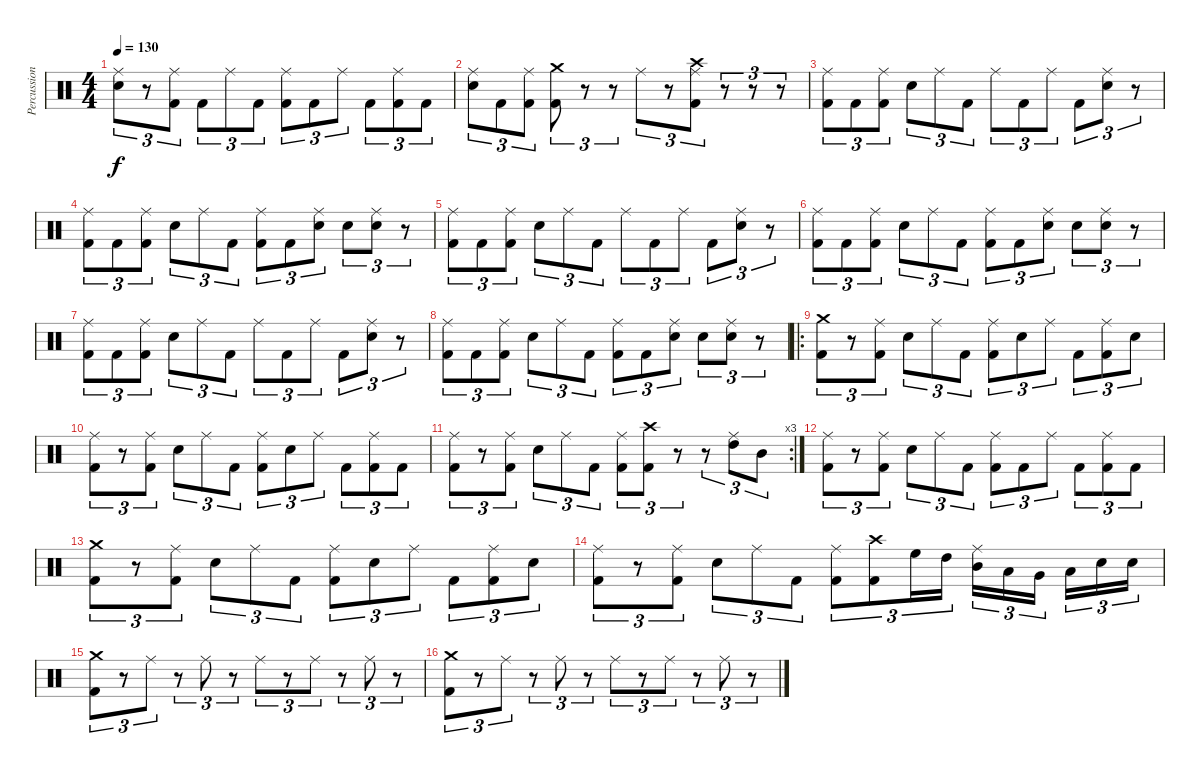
\track ("Percussion" "Percussion") {instrument percussion}
\staff {score}
\articulation defaults
\ts (4 4)
\tempo 130
\clef neutral
\ks c
("Ride (middle)" "Electric Snare (hit)").8{tu (3 2) dy f} r.8{tu (3 2)} ("Ride (middle)" "Kick (hit) 2").8{tu (3 2)} "Kick (hit) 2".8{tu (3 2)} "Ride (middle)".8{tu (3 2)} "Kick (hit) 2".8{tu (3 2)} ("Ride (middle)" "Kick (hit) 2").8{tu (3 2)} "Kick (hit) 2".8{tu (3 2)} "Ride (middle)".8{tu (3 2)} "Kick (hit) 2".8{tu (3 2)} ("Ride (middle)" "Kick (hit) 2").8{tu (3 2)} "Kick (hit) 2".8{tu (3 2)} |
("Ride (middle)" "Electric Snare (hit)").8{tu (3 2)} "Kick (hit) 2".8{tu (3 2)} ("Ride (middle)" "Kick (hit) 2").8{tu (3 2)} ("Crash medium (hit)" "Kick (hit) 2").8{tu (3 2)} r.8{tu (3 2)} r.8{tu (3 2)} "Ride (middle)".8{tu (3 2)} r.8{tu (3 2)} ("Ride (middle)" "Crash high (hit)" "Kick (hit) 2").8{tu (3 2)} r.8{tu (3 2)} r.8{tu (3 2)} r.8{tu (3 2)} |
("Ride (middle)" "Kick (hit) 2").8{tu (3 2)} "Kick (hit) 2".8{tu (3 2)} ("Ride (middle)" "Kick (hit) 2").8{tu (3 2)} "Electric Snare (hit)".8{tu (3 2)} "Ride (middle)".8{tu (3 2)} "Kick (hit) 2".8{tu (3 2)} "Ride (middle)".8{tu (3 2)} "Kick (hit) 2".8{tu (3 2)} "Ride (middle)".8{tu (3 2)} "Kick (hit) 2".8{tu (3 2)} ("Ride (middle)" "Electric Snare (hit)").8{tu (3 2)} r.8{tu (3 2)} |
("Ride (middle)" "Kick (hit) 2").8{tu (3 2)} "Kick (hit) 2".8{tu (3 2)} ("Ride (middle)" "Kick (hit) 2").8{tu (3 2)} "Electric Snare (hit)".8{tu (3 2)} "Ride (middle)".8{tu (3 2)} "Kick (hit) 2".8{tu (3 2)} ("Ride (middle)" "Kick (hit) 2").8{tu (3 2)} "Kick (hit) 2".8{tu (3 2)} ("Ride (middle)" "Electric Snare (hit)").8{tu (3 2)} "Electric Snare (hit)".8{tu (3 2)} ("Ride (middle)" "Electric Snare (hit)").8{tu (3 2)} r.8{tu (3 2)} |
("Ride (middle)" "Kick (hit) 2").8{tu (3 2)} "Kick (hit) 2".8{tu (3 2)} ("Ride (middle)" "Kick (hit) 2").8{tu (3 2)} "Electric Snare (hit)".8{tu (3 2)} "Ride (middle)".8{tu (3 2)} "Kick (hit) 2".8{tu (3 2)} "Ride (middle)".8{tu (3 2)} "Kick (hit) 2".8{tu (3 2)} "Ride (middle)".8{tu (3 2)} "Kick (hit) 2".8{tu (3 2)} ("Ride (middle)" "Electric Snare (hit)").8{tu (3 2)} r.8{tu (3 2)} |
("Ride (middle)" "Kick (hit) 2").8{tu (3 2)} "Kick (hit) 2".8{tu (3 2)} ("Ride (middle)" "Kick (hit) 2").8{tu (3 2)} "Electric Snare (hit)".8{tu (3 2)} "Ride (middle)".8{tu (3 2)} "Kick (hit) 2".8{tu (3 2)} ("Ride (middle)" "Kick (hit) 2").8{tu (3 2)} "Kick (hit) 2".8{tu (3 2)} ("Ride (middle)" "Electric Snare (hit)").8{tu (3 2)} "Electric Snare (hit)".8{tu (3 2)} ("Ride (middle)" "Electric Snare (hit)").8{tu (3 2)} r.8{tu (3 2)} |
("Ride (middle)" "Kick (hit) 2").8{tu (3 2)} "Kick (hit) 2".8{tu (3 2)} ("Ride (middle)" "Kick (hit) 2").8{tu (3 2)} "Electric Snare (hit)".8{tu (3 2)} "Ride (middle)".8{tu (3 2)} "Kick (hit) 2".8{tu (3 2)} "Ride (middle)".8{tu (3 2)} "Kick (hit) 2".8{tu (3 2)} "Ride (middle)".8{tu (3 2)} "Kick (hit) 2".8{tu (3 2)} ("Ride (middle)" "Electric Snare (hit)").8{tu (3 2)} r.8{tu (3 2)} |
("Ride (middle)" "Kick (hit) 2").8{tu (3 2)} "Kick (hit) 2".8{tu (3 2)} ("Ride (middle)" "Kick (hit) 2").8{tu (3 2)} "Electric Snare (hit)".8{tu (3 2)} "Ride (middle)".8{tu (3 2)} "Kick (hit) 2".8{tu (3 2)} ("Ride (middle)" "Kick (hit) 2").8{tu (3 2)} "Kick (hit) 2".8{tu (3 2)} ("Ride (middle)" "Electric Snare (hit)").8{tu (3 2)} "Electric Snare (hit)".8{tu (3 2)} ("Ride (middle)" "Electric Snare (hit)").8{tu (3 2)} r.8{tu (3 2)} |
\ro
("Crash medium (hit)" "Kick (hit) 2").8{tu (3 2)} r.8{tu (3 2)} ("Ride (middle)" "Kick (hit) 2").8{tu (3 2)} "Electric Snare (hit)".8{tu (3 2)} "Ride (middle)".8{tu (3 2)} "Kick (hit) 2".8{tu (3 2)} ("Ride (middle)" "Kick (hit) 2").8{tu (3 2)} "Electric Snare (hit)".8{tu (3 2)} "Ride (middle)".8{tu (3 2)} "Kick (hit) 2".8{tu (3 2)} ("Ride (middle)" "Kick (hit) 2").8{tu (3 2)} "Electric Snare (hit)".8{tu (3 2)} |
("Ride (middle)" "Kick (hit) 2").8{tu (3 2)} r.8{tu (3 2)} ("Ride (middle)" "Kick (hit) 2").8{tu (3 2)} "Electric Snare (hit)".8{tu (3 2)} "Ride (middle)".8{tu (3 2)} "Kick (hit) 2".8{tu (3 2)} ("Ride (middle)" "Kick (hit) 2").8{tu (3 2)} "Electric Snare (hit)".8{tu (3 2)} "Ride (middle)".8{tu (3 2)} "Kick (hit) 2".8{tu (3 2)} ("Ride (middle)" "Kick (hit) 2").8{tu (3 2)} "Kick (hit) 2".8{tu (3 2)} |
\rc 3
("Ride (middle)" "Kick (hit) 2").8{tu (3 2)} r.8{tu (3 2)} ("Ride (middle)" "Kick (hit) 2").8{tu (3 2)} "Electric Snare (hit)".8{tu (3 2)} "Ride (middle)".8{tu (3 2)} "Kick (hit) 2".8{tu (3 2)} ("Ride (middle)" "Kick (hit) 2").8{tu (3 2)} ("Crash high (hit)" "Kick (hit) 2").8{tu (3 2)} r.8{tu (3 2)} r.8{tu (3 2)} ("Ride (middle)" "High Tom (hit)").8{tu (3 2)} "Mid Tom (hit)".8{tu (3 2)} |
("Ride (middle)" "Kick (hit) 2").8{tu (3 2)} r.8{tu (3 2)} ("Ride (middle)" "Kick (hit) 2").8{tu (3 2)} "Electric Snare (hit)".8{tu (3 2)} "Ride (middle)".8{tu (3 2)} "Kick (hit) 2".8{tu (3 2)} ("Ride (middle)" "Kick (hit) 2").8{tu (3 2)} "Kick (hit) 2".8{tu (3 2)} "Ride (middle)".8{tu (3 2)} "Kick (hit) 2".8{tu (3 2)} ("Ride (middle)" "Kick (hit) 2").8{tu (3 2)} "Kick (hit) 2".8{tu (3 2)} |
("Crash medium (hit)" "Kick (hit) 2").8{tu (3 2)} r.8{tu (3 2)} ("Ride (middle)" "Kick (hit) 2").8{tu (3 2)} "Electric Snare (hit)".8{tu (3 2)} "Ride (middle)".8{tu (3 2)} "Kick (hit) 2".8{tu (3 2)} ("Ride (middle)" "Kick (hit) 2").8{tu (3 2)} "Electric Snare (hit)".8{tu (3 2)} "Ride (middle)".8{tu (3 2)} "Kick (hit) 2".8{tu (3 2)} ("Ride (middle)" "Kick (hit) 2").8{tu (3 2)} "Electric Snare (hit)".8{tu (3 2)} |
("Ride (middle)" "Kick (hit) 2").8{tu (3 2)} r.8{tu (3 2)} ("Ride (middle)" "Kick (hit) 2").8{tu (3 2)} "Electric Snare (hit)".8{tu (3 2)} "Ride (middle)".8{tu (3 2)} "Kick (hit) 2".8{tu (3 2)} ("Ride (middle)" "Kick (hit) 2").8{tu (3 2)} ("Crash high (hit)" "Kick (hit) 2").8{tu (3 2)} "High Floor Tom (hit)".16{tu (3 2)} "High Tom (hit)".16{tu (3 2)} ("Ride (middle)" "Mid Tom (hit)").16{tu (3 2)} "Low Tom (hit)".16{tu (3 2)} "Very Low Tom (hit)".16{tu (3 2)} "Low Floor Tom (hit)".16{tu (3 2)} "Electric Snare (hit)".16{tu (3 2)} "Electric Snare (hit)".16{tu (3 2)} |
("Crash medium (hit)" "Kick (hit) 2").8{tu (3 2)} r.8{tu (3 2)} "Ride (middle)".8{tu (3 2)} r.8{tu (3 2)} "Ride (middle)".8{tu (3 2)} r.8{tu (3 2)} "Ride (middle)".8{tu (3 2)} r.8{tu (3 2)} "Ride (middle)".8{tu (3 2)} r.8{tu (3 2)} "Ride (middle)".8{tu (3 2)} r.8{tu (3 2)} |
("Crash medium (hit)" "Kick (hit) 2").8{tu (3 2)} r.8{tu (3 2)} "Ride (middle)".8{tu (3 2)} r.8{tu (3 2)} "Ride (middle)".8{tu (3 2)} r.8{tu (3 2)} "Ride (middle)".8{tu (3 2)} r.8{tu (3 2)} "Ride (middle)".8{tu (3 2)} r.8{tu (3 2)} "Ride (middle)".8{tu (3 2)} r.8{tu (3 2)}
